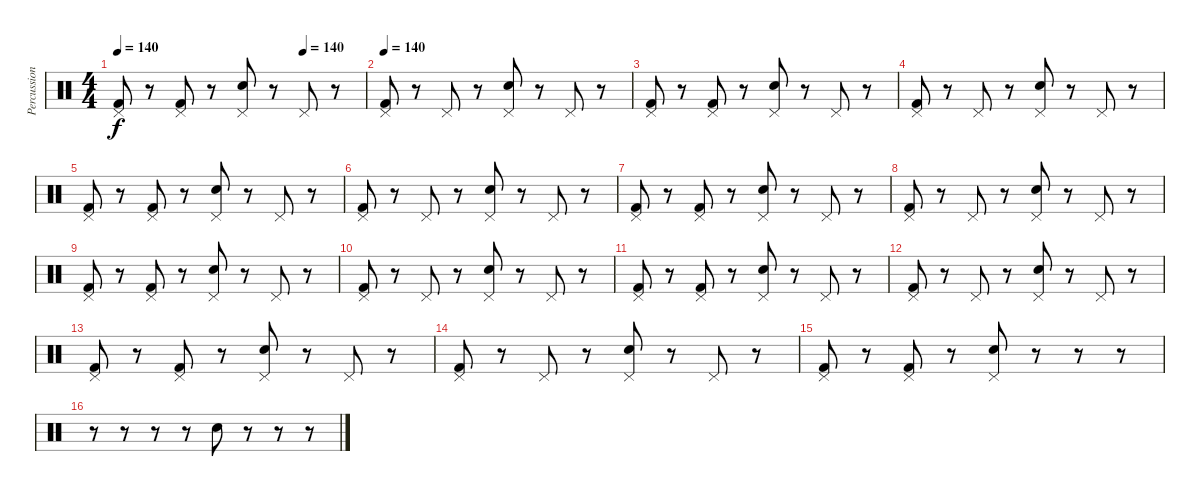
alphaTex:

\track ("Percussion" "Percussion") {instrument percussion}
\staff {score}
\articulation defaults
\ts (4 4)
\tempo 140
\tempo (140 0.75)
\clef neutral
\ks c
("Kick (hit) 2" "Pedal Hi-Hat (hit)").8{dy f} r.8 ("Kick (hit) 2" "Pedal Hi-Hat (hit)").8 r.8 ("Electric Snare (hit)" "Pedal Hi-Hat (hit)").8 r.8 "Pedal Hi-Hat (hit)".8 r.8 |
\tempo 140
("Kick (hit) 2" "Pedal Hi-Hat (hit)").8 r.8 "Pedal Hi-Hat (hit)".8 r.8 ("Electric Snare (hit)" "Pedal Hi-Hat (hit)").8 r.8 "Pedal Hi-Hat (hit)".8 r.8 |
("Kick (hit) 2" "Pedal Hi-Hat (hit)").8 r.8 ("Kick (hit) 2" "Pedal Hi-Hat (hit)").8 r.8 ("Electric Snare (hit)" "Pedal Hi-Hat (hit)").8 r.8 "Pedal Hi-Hat (hit)".8 r.8 |
("Kick (hit) 2" "Pedal Hi-Hat (hit)").8 r.8 "Pedal Hi-Hat (hit)".8 r.8 ("Electric Snare (hit)" "Pedal Hi-Hat (hit)").8 r.8 "Pedal Hi-Hat (hit)".8 r.8 |
("Kick (hit) 2" "Pedal Hi-Hat (hit)").8 r.8 ("Kick (hit) 2" "Pedal Hi-Hat (hit)").8 r.8 ("Electric Snare (hit)" "Pedal Hi-Hat (hit)").8 r.8 "Pedal Hi-Hat (hit)".8 r.8 |
("Kick (hit) 2" "Pedal Hi-Hat (hit)").8 r.8 "Pedal Hi-Hat (hit)".8 r.8 ("Electric Snare (hit)" "Pedal Hi-Hat (hit)").8 r.8 "Pedal Hi-Hat (hit)".8 r.8 |
("Kick (hit) 2" "Pedal Hi-Hat (hit)").8 r.8 ("Kick (hit) 2" "Pedal Hi-Hat (hit)").8 r.8 ("Electric Snare (hit)" "Pedal Hi-Hat (hit)").8 r.8 "Pedal Hi-Hat (hit)".8 r.8 |
("Kick (hit) 2" "Pedal Hi-Hat (hit)").8 r.8 "Pedal Hi-Hat (hit)".8 r.8 ("Electric Snare (hit)" "Pedal Hi-Hat (hit)").8 r.8 "Pedal Hi-Hat (hit)".8 r.8 |
("Kick (hit) 2" "Pedal Hi-Hat (hit)").8 r.8 ("Kick (hit) 2" "Pedal Hi-Hat (hit)").8 r.8 ("Electric Snare (hit)" "Pedal Hi-Hat (hit)").8 r.8 "Pedal Hi-Hat (hit)".8 r.8 |
("Kick (hit) 2" "Pedal Hi-Hat (hit)").8 r.8 "Pedal Hi-Hat (hit)".8 r.8 ("Electric Snare (hit)" "Pedal Hi-Hat (hit)").8 r.8 "Pedal Hi-Hat (hit)".8 r.8 |
("Kick (hit) 2" "Pedal Hi-Hat (hit)").8 r.8 ("Kick (hit) 2" "Pedal Hi-Hat (hit)").8 r.8 ("Electric Snare (hit)" "Pedal Hi-Hat (hit)").8 r.8 "Pedal Hi-Hat (hit)".8 r.8 |
("Kick (hit) 2" "Pedal Hi-Hat (hit)").8 r.8 "Pedal Hi-Hat (hit)".8 r.8 ("Electric Snare (hit)" "Pedal Hi-Hat (hit)").8 r.8 "Pedal Hi-Hat (hit)".8 r.8 |
("Kick (hit) 2" "Pedal Hi-Hat (hit)").8 r.8 ("Kick (hit) 2" "Pedal Hi-Hat (hit)").8 r.8 ("Electric Snare (hit)" "Pedal Hi-Hat (hit)").8 r.8 "Pedal Hi-Hat (hit)".8 r.8 |
("Kick (hit) 2" "Pedal Hi-Hat (hit)").8 r.8 "Pedal Hi-Hat (hit)".8 r.8 ("Electric Snare (hit)" "Pedal Hi-Hat (hit)").8 r.8 "Pedal Hi-Hat (hit)".8 r.8 |
("Kick (hit) 2" "Pedal Hi-Hat (hit)").8 r.8 ("Kick (hit) 2" "Pedal Hi-Hat (hit)").8 r.8 ("Electric Snare (hit)" "Pedal Hi-Hat (hit)").8 r.8 r.8 r.8 |
r.8 r.8 r.8 r.8 "Electric Snare (hit)".8 r.8 r.8 r.8
